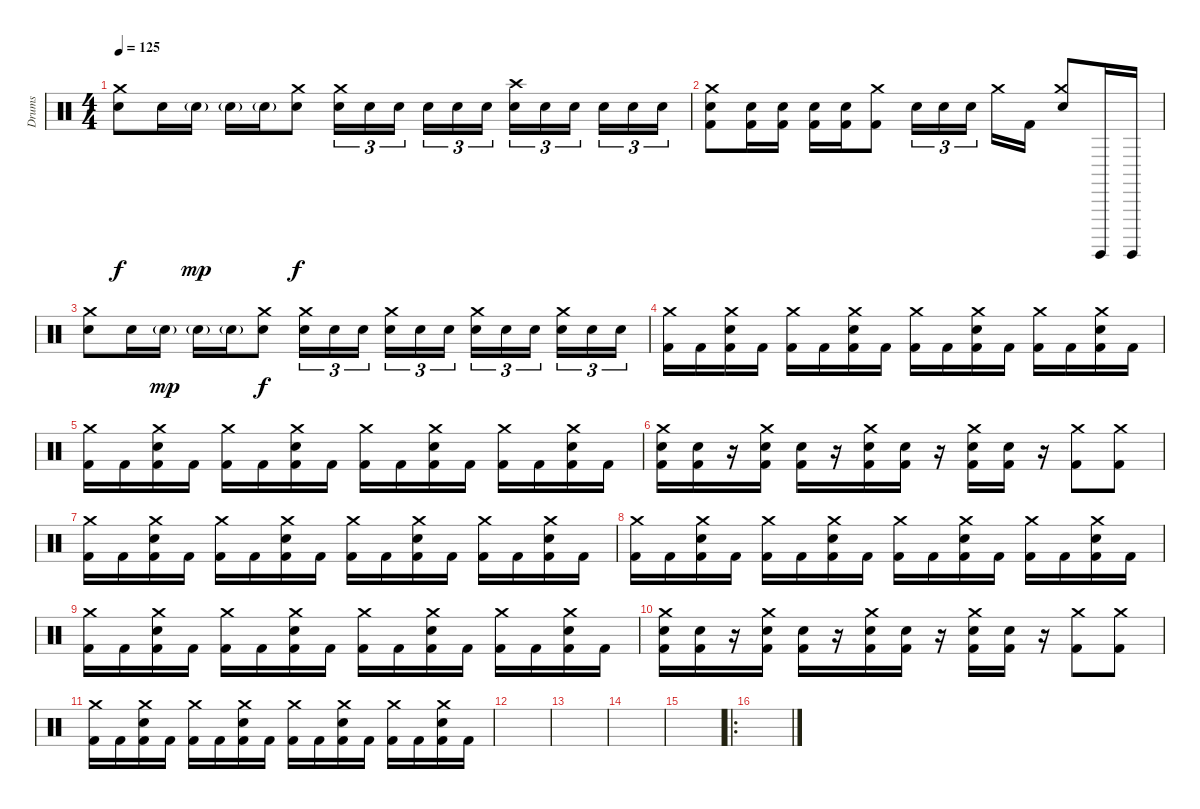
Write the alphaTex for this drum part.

\track ("Drums" "Drums") {instrument percussion}
\staff {score}
\articulation defaults
\ts (4 4)
\tempo 125
\clef neutral
\ks c
("Crash medium (hit)" "Electric Snare (hit)").8{dy f} "Electric Snare (hit)".16 "Electric Snare (hit)"{g}.16{dy mp} "Electric Snare (hit)"{g}.16 "Electric Snare (hit)"{g}.16 ("Crash medium (hit)" "Electric Snare (hit)").8{dy f} ("Crash medium (hit)" "Electric Snare (hit)").16{tu (3 2)} "Electric Snare (hit)".16{tu (3 2)} "Electric Snare (hit)".16{tu (3 2)} "Electric Snare (hit)".16{tu (3 2)} "Electric Snare (hit)".16{tu (3 2)} "Electric Snare (hit)".16{tu (3 2)} ("Crash high (hit)" "Electric Snare (hit)").16{tu (3 2)} "Electric Snare (hit)".16{tu (3 2)} "Electric Snare (hit)".16{tu (3 2)} "Electric Snare (hit)".16{tu (3 2)} "Electric Snare (hit)".16{tu (3 2)} "Electric Snare (hit)".16{tu (3 2)} |
("Crash medium (hit)" "Electric Snare (hit)" "Kick (hit) 2").8 ("Electric Snare (hit)" "Kick (hit) 2").16 ("Electric Snare (hit)" "Kick (hit) 2").16 ("Electric Snare (hit)" "Kick (hit) 2").16 ("Electric Snare (hit)" "Kick (hit) 2").16 ("Crash medium (hit)" "Kick (hit) 2").8 "Electric Snare (hit)".16{tu (3 2)} "Electric Snare (hit)".16{tu (3 2)} "Electric Snare (hit)".16{tu (3 2)} "Crash medium (hit)".16 "Kick (hit) 2".16 ("Crash medium (hit)" "Electric Snare (hit)").8 "Surdo (hit)".16 "Surdo (hit)".16 |
("Crash medium (hit)" "Electric Snare (hit)").8 "Electric Snare (hit)".16 "Electric Snare (hit)"{g}.16{dy mp} "Electric Snare (hit)"{g}.16 "Electric Snare (hit)"{g}.16 ("Crash medium (hit)" "Electric Snare (hit)").8{dy f} ("Crash medium (hit)" "Electric Snare (hit)").16{tu (3 2)} "Electric Snare (hit)".16{tu (3 2)} "Electric Snare (hit)".16{tu (3 2)} ("Crash medium (hit)" "Electric Snare (hit)").16{tu (3 2)} "Electric Snare (hit)".16{tu (3 2)} "Electric Snare (hit)".16{tu (3 2)} ("Crash medium (hit)" "Electric Snare (hit)").16{tu (3 2)} "Electric Snare (hit)".16{tu (3 2)} "Electric Snare (hit)".16{tu (3 2)} ("Crash medium (hit)" "Electric Snare (hit)").16{tu (3 2)} "Electric Snare (hit)".16{tu (3 2)} "Electric Snare (hit)".16{tu (3 2)} |
("Crash medium (hit)" "Kick (hit) 2").16 "Kick (hit) 2".16 ("Crash medium (hit)" "Electric Snare (hit)" "Kick (hit) 2").16 "Kick (hit) 2".16 ("Crash medium (hit)" "Kick (hit) 2").16 "Kick (hit) 2".16 ("Crash medium (hit)" "Electric Snare (hit)" "Kick (hit) 2").16 "Kick (hit) 2".16 ("Crash medium (hit)" "Kick (hit) 2").16 "Kick (hit) 2".16 ("Crash medium (hit)" "Electric Snare (hit)" "Kick (hit) 2").16 "Kick (hit) 2".16 ("Crash medium (hit)" "Kick (hit) 2").16 "Kick (hit) 2".16 ("Crash medium (hit)" "Electric Snare (hit)" "Kick (hit) 2").16 "Kick (hit) 2".16 |
("Crash medium (hit)" "Kick (hit) 2").16 "Kick (hit) 2".16 ("Crash medium (hit)" "Electric Snare (hit)" "Kick (hit) 2").16 "Kick (hit) 2".16 ("Crash medium (hit)" "Kick (hit) 2").16 "Kick (hit) 2".16 ("Crash medium (hit)" "Electric Snare (hit)" "Kick (hit) 2").16 "Kick (hit) 2".16 ("Crash medium (hit)" "Kick (hit) 2").16 "Kick (hit) 2".16 ("Crash medium (hit)" "Electric Snare (hit)" "Kick (hit) 2").16 "Kick (hit) 2".16 ("Crash medium (hit)" "Kick (hit) 2").16 "Kick (hit) 2".16 ("Crash medium (hit)" "Electric Snare (hit)" "Kick (hit) 2").16 "Kick (hit) 2".16 |
("Crash medium (hit)" "Electric Snare (hit)" "Kick (hit) 2").16 ("Electric Snare (hit)" "Kick (hit) 2").16 r.16 ("Crash medium (hit)" "Electric Snare (hit)" "Kick (hit) 2").16 ("Electric Snare (hit)" "Kick (hit) 2").16 r.16 ("Crash medium (hit)" "Electric Snare (hit)" "Kick (hit) 2").16 ("Electric Snare (hit)" "Kick (hit) 2").16 r.16 ("Crash medium (hit)" "Electric Snare (hit)" "Kick (hit) 2").16 ("Electric Snare (hit)" "Kick (hit) 2").16 r.16 ("Crash medium (hit)" "Kick (hit) 2").8 ("Crash medium (hit)" "Kick (hit) 2").8 |
("Crash medium (hit)" "Kick (hit) 2").16 "Kick (hit) 2".16 ("Crash medium (hit)" "Electric Snare (hit)" "Kick (hit) 2").16 "Kick (hit) 2".16 ("Crash medium (hit)" "Kick (hit) 2").16 "Kick (hit) 2".16 ("Crash medium (hit)" "Electric Snare (hit)" "Kick (hit) 2").16 "Kick (hit) 2".16 ("Crash medium (hit)" "Kick (hit) 2").16 "Kick (hit) 2".16 ("Crash medium (hit)" "Electric Snare (hit)" "Kick (hit) 2").16 "Kick (hit) 2".16 ("Crash medium (hit)" "Kick (hit) 2").16 "Kick (hit) 2".16 ("Crash medium (hit)" "Electric Snare (hit)" "Kick (hit) 2").16 "Kick (hit) 2".16 |
("Crash medium (hit)" "Kick (hit) 2").16 "Kick (hit) 2".16 ("Crash medium (hit)" "Electric Snare (hit)" "Kick (hit) 2").16 "Kick (hit) 2".16 ("Crash medium (hit)" "Kick (hit) 2").16 "Kick (hit) 2".16 ("Crash medium (hit)" "Electric Snare (hit)" "Kick (hit) 2").16 "Kick (hit) 2".16 ("Crash medium (hit)" "Kick (hit) 2").16 "Kick (hit) 2".16 ("Crash medium (hit)" "Electric Snare (hit)" "Kick (hit) 2").16 "Kick (hit) 2".16 ("Crash medium (hit)" "Kick (hit) 2").16 "Kick (hit) 2".16 ("Crash medium (hit)" "Electric Snare (hit)" "Kick (hit) 2").16 "Kick (hit) 2".16 |
("Crash medium (hit)" "Kick (hit) 2").16 "Kick (hit) 2".16 ("Crash medium (hit)" "Electric Snare (hit)" "Kick (hit) 2").16 "Kick (hit) 2".16 ("Crash medium (hit)" "Kick (hit) 2").16 "Kick (hit) 2".16 ("Crash medium (hit)" "Electric Snare (hit)" "Kick (hit) 2").16 "Kick (hit) 2".16 ("Crash medium (hit)" "Kick (hit) 2").16 "Kick (hit) 2".16 ("Crash medium (hit)" "Electric Snare (hit)" "Kick (hit) 2").16 "Kick (hit) 2".16 ("Crash medium (hit)" "Kick (hit) 2").16 "Kick (hit) 2".16 ("Crash medium (hit)" "Electric Snare (hit)" "Kick (hit) 2").16 "Kick (hit) 2".16 |
("Crash medium (hit)" "Electric Snare (hit)" "Kick (hit) 2").16 ("Electric Snare (hit)" "Kick (hit) 2").16 r.16 ("Crash medium (hit)" "Electric Snare (hit)" "Kick (hit) 2").16 ("Electric Snare (hit)" "Kick (hit) 2").16 r.16 ("Crash medium (hit)" "Electric Snare (hit)" "Kick (hit) 2").16 ("Electric Snare (hit)" "Kick (hit) 2").16 r.16 ("Crash medium (hit)" "Electric Snare (hit)" "Kick (hit) 2").16 ("Electric Snare (hit)" "Kick (hit) 2").16 r.16 ("Crash medium (hit)" "Kick (hit) 2").8 ("Crash medium (hit)" "Kick (hit) 2").8 |
("Crash medium (hit)" "Kick (hit) 2").16 "Kick (hit) 2".16 ("Crash medium (hit)" "Electric Snare (hit)" "Kick (hit) 2").16 "Kick (hit) 2".16 ("Crash medium (hit)" "Kick (hit) 2").16 "Kick (hit) 2".16 ("Crash medium (hit)" "Electric Snare (hit)" "Kick (hit) 2").16 "Kick (hit) 2".16 ("Crash medium (hit)" "Kick (hit) 2").16 "Kick (hit) 2".16 ("Crash medium (hit)" "Electric Snare (hit)" "Kick (hit) 2").16 "Kick (hit) 2".16 ("Crash medium (hit)" "Kick (hit) 2").16 "Kick (hit) 2".16 ("Crash medium (hit)" "Electric Snare (hit)" "Kick (hit) 2").16 "Kick (hit) 2".16 |
|
|
|
|
\ro
